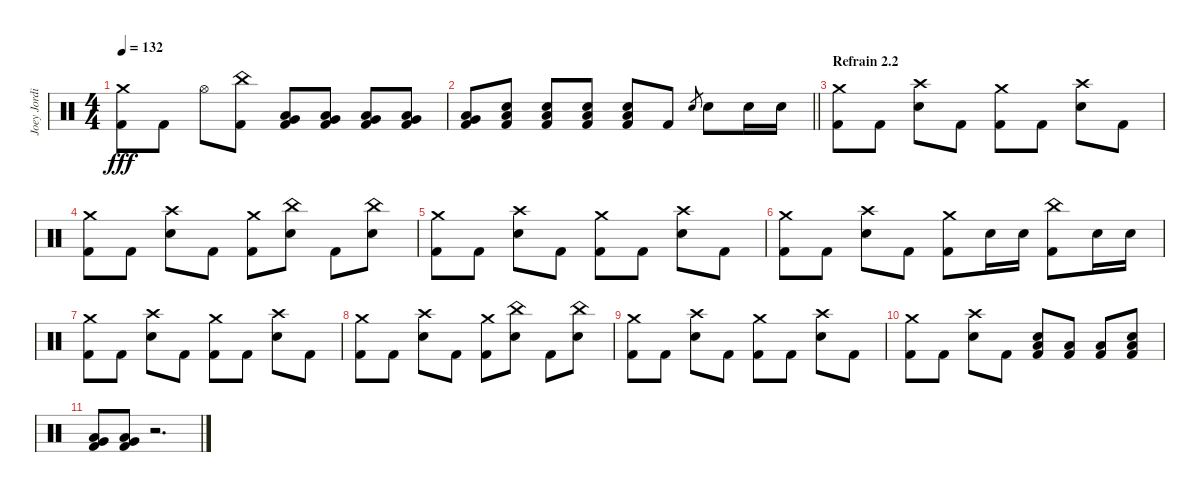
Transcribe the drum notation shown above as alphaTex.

\track ("Joey Jordison" "Joey Jordi") {instrument percussion}
\staff {score}
\articulation defaults
\ts (4 4)
\tempo 132
\clef neutral
\ks c
("Crash medium (hit)" "Kick (hit) 2").8{dy fff} "Kick (hit) 2".8 "Hi-Hat (open)".8 ("China (hit)" "Kick (hit) 2").8 ("Very Low Tom (hit)" "Low Floor Tom (hit)" "Kick (hit) 2").8 ("Very Low Tom (hit)" "Low Floor Tom (hit)" "Kick (hit) 2").8 ("Very Low Tom (hit)" "Low Floor Tom (hit)" "Kick (hit) 2").8 ("Very Low Tom (hit)" "Low Floor Tom (hit)" "Kick (hit) 2").8 |
\barLineRight lightlight
("Very Low Tom (hit)" "Low Floor Tom (hit)" "Kick (hit) 2").8 ("Electric Snare (hit)" "Low Floor Tom (hit)" "Kick (hit) 2").8 ("Electric Snare (hit)" "Low Floor Tom (hit)" "Kick (hit) 2").8 ("Electric Snare (hit)" "Low Floor Tom (hit)" "Kick (hit) 2").8 ("Electric Snare (hit)" "Low Floor Tom (hit)" "Kick (hit) 2").8 "Kick (hit) 2".8 "Electric Snare (hit)".8{gr} "Electric Snare (hit)".8 "Electric Snare (hit)".16 "Electric Snare (hit)".16 |
\section ("" "Refrain 2.2")
("Crash medium (hit)" "Kick (hit) 2").8 "Kick (hit) 2".8 ("Crash high (hit)" "Electric Snare (hit)").8 "Kick (hit) 2".8 ("Crash medium (hit)" "Kick (hit) 2").8 "Kick (hit) 2".8 ("Crash high (hit)" "Electric Snare (hit)").8 "Kick (hit) 2".8 |
("Crash medium (hit)" "Kick (hit) 2").8 "Kick (hit) 2".8 ("Crash high (hit)" "Electric Snare (hit)").8 "Kick (hit) 2".8 ("Crash medium (hit)" "Kick (hit) 2").8 ("China (hit)" "Electric Snare (hit)").8 "Kick (hit) 2".8 ("China (hit)" "Electric Snare (hit)").8 |
("Crash medium (hit)" "Kick (hit) 2").8 "Kick (hit) 2".8 ("Crash high (hit)" "Electric Snare (hit)").8 "Kick (hit) 2".8 ("Crash medium (hit)" "Kick (hit) 2").8 "Kick (hit) 2".8 ("Crash high (hit)" "Electric Snare (hit)").8 "Kick (hit) 2".8 |
("Crash medium (hit)" "Kick (hit) 2").8 "Kick (hit) 2".8 ("Crash high (hit)" "Electric Snare (hit)").8 "Kick (hit) 2".8 ("Crash medium (hit)" "Kick (hit) 2").8 "Electric Snare (hit)".16 "Electric Snare (hit)".16 ("China (hit)" "Kick (hit) 2").8 "Electric Snare (hit)".16 "Electric Snare (hit)".16 |
("Crash medium (hit)" "Kick (hit) 2").8 "Kick (hit) 2".8 ("Crash high (hit)" "Electric Snare (hit)").8 "Kick (hit) 2".8 ("Crash medium (hit)" "Kick (hit) 2").8 "Kick (hit) 2".8 ("Crash high (hit)" "Electric Snare (hit)").8 "Kick (hit) 2".8 |
("Crash medium (hit)" "Kick (hit) 2").8 "Kick (hit) 2".8 ("Crash high (hit)" "Electric Snare (hit)").8 "Kick (hit) 2".8 ("Crash medium (hit)" "Kick (hit) 2").8 ("China (hit)" "Electric Snare (hit)").8 "Kick (hit) 2".8 ("China (hit)" "Electric Snare (hit)").8 |
("Crash medium (hit)" "Kick (hit) 2").8 "Kick (hit) 2".8 ("Crash high (hit)" "Electric Snare (hit)").8 "Kick (hit) 2".8 ("Crash medium (hit)" "Kick (hit) 2").8 "Kick (hit) 2".8 ("Crash high (hit)" "Electric Snare (hit)").8 "Kick (hit) 2".8 |
("Crash medium (hit)" "Kick (hit) 2").8 "Kick (hit) 2".8 ("Crash high (hit)" "Electric Snare (hit)").8 "Kick (hit) 2".8 ("Electric Snare (hit)" "Low Floor Tom (hit)" "Kick (hit) 2").8 ("Low Floor Tom (hit)" "Kick (hit) 2").8 ("Low Floor Tom (hit)" "Kick (hit) 2").8 ("Electric Snare (hit)" "Low Floor Tom (hit)" "Kick (hit) 2").8 |
("Very Low Tom (hit)" "Low Floor Tom (hit)" "Kick (hit) 2").8 ("Very Low Tom (hit)" "Low Floor Tom (hit)" "Kick (hit) 2").8 r.2{d}
